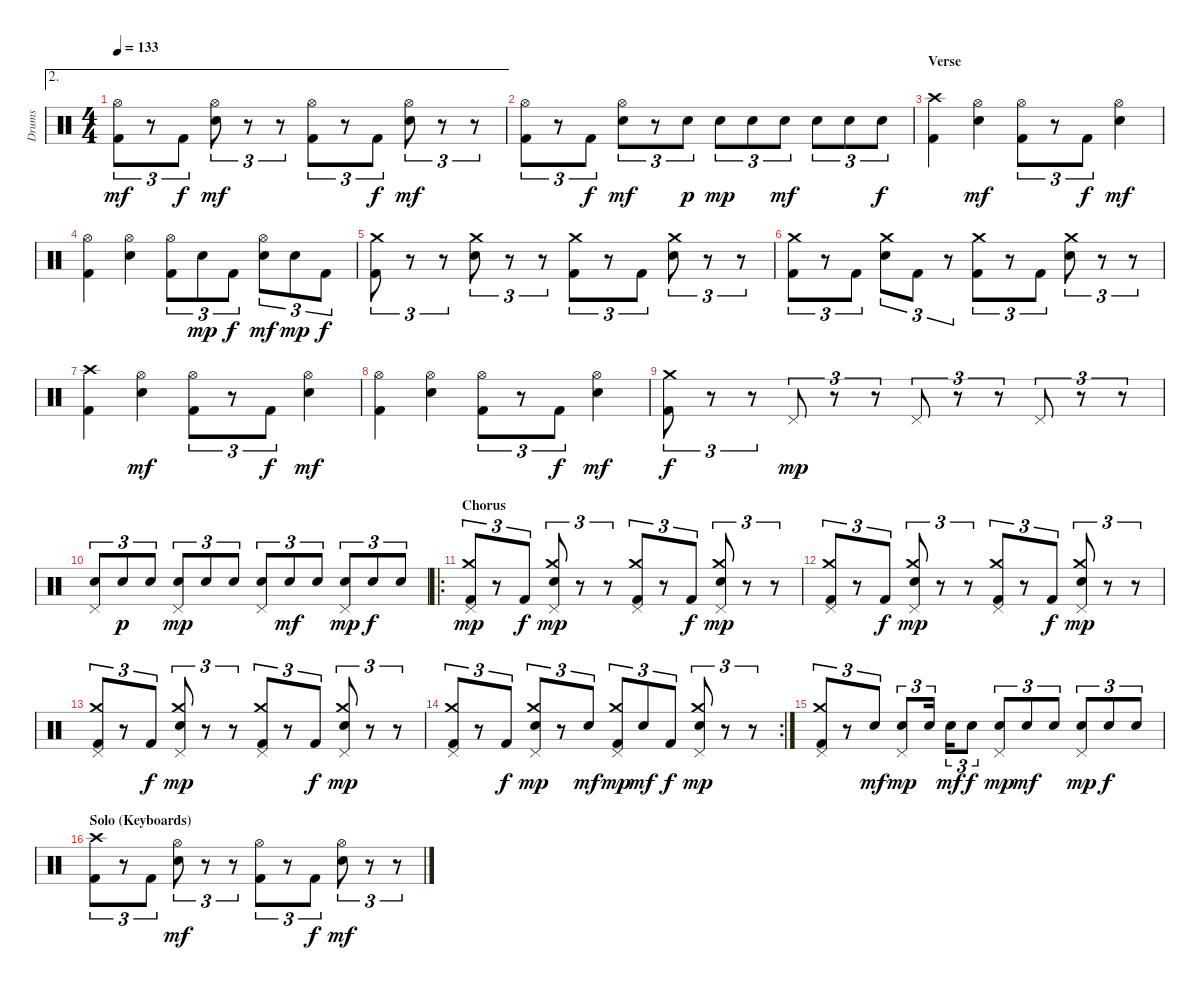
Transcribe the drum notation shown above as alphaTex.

\track ("Drums" "Drums") {instrument percussion}
\staff {score}
\articulation defaults
\ae 2
\ts (4 4)
\tempo 133
\clef neutral
\ks c
("Hi-Hat (open)" "Kick (hit) 2").8{tu (3 2) dy mf} r.8{tu (3 2)} "Kick (hit) 2".8{tu (3 2) dy f} ("Hi-Hat (open)" "Electric Snare (hit)").8{tu (3 2) dy mf} r.8{tu (3 2)} r.8{tu (3 2)} ("Hi-Hat (open)" "Kick (hit) 2").8{tu (3 2)} r.8{tu (3 2)} "Kick (hit) 2".8{tu (3 2) dy f} ("Hi-Hat (open)" "Electric Snare (hit)").8{tu (3 2) dy mf} r.8{tu (3 2)} r.8{tu (3 2)} |
("Hi-Hat (open)" "Kick (hit) 2").8{tu (3 2)} r.8{tu (3 2)} "Kick (hit) 2".8{tu (3 2) dy f} ("Hi-Hat (open)" "Electric Snare (hit)").8{tu (3 2) dy mf} r.8{tu (3 2)} "Electric Snare (hit)".8{tu (3 2) dy p} "Electric Snare (hit)".8{tu (3 2) dy mp} "Electric Snare (hit)".8{tu (3 2)} "Electric Snare (hit)".8{tu (3 2) dy mf} "Electric Snare (hit)".8{tu (3 2)} "Electric Snare (hit)".8{tu (3 2)} "Electric Snare (hit)".8{tu (3 2) dy f} |
\section ("" "Verse")
("Crash high (hit)" "Kick (hit) 2").4 ("Hi-Hat (open)" "Electric Snare (hit)").4{dy mf} ("Hi-Hat (open)" "Kick (hit) 2").8{tu (3 2)} r.8{tu (3 2)} "Kick (hit) 2".8{tu (3 2) dy f} ("Hi-Hat (open)" "Electric Snare (hit)").4{dy mf} |
("Hi-Hat (open)" "Kick (hit) 2").4 ("Hi-Hat (open)" "Electric Snare (hit)").4 ("Hi-Hat (open)" "Kick (hit) 2").8{tu (3 2)} "Electric Snare (hit)".8{tu (3 2) dy mp} "Kick (hit) 2".8{tu (3 2) dy f} ("Hi-Hat (open)" "Electric Snare (hit)").8{tu (3 2) dy mf} "Electric Snare (hit)".8{tu (3 2) dy mp} "Kick (hit) 2".8{tu (3 2) dy f} |
("Crash medium (hit)" "Kick (hit) 2").8{tu (3 2)} r.8{tu (3 2)} r.8{tu (3 2)} ("Crash medium (hit)" "Electric Snare (hit)").8{tu (3 2)} r.8{tu (3 2)} r.8{tu (3 2)} ("Crash medium (hit)" "Kick (hit) 2").8{tu (3 2)} r.8{tu (3 2)} "Kick (hit) 2".8{tu (3 2)} ("Crash medium (hit)" "Electric Snare (hit)").8{tu (3 2)} r.8{tu (3 2)} r.8{tu (3 2)} |
("Crash medium (hit)" "Kick (hit) 2").8{tu (3 2)} r.8{tu (3 2)} "Kick (hit) 2".8{tu (3 2)} ("Crash medium (hit)" "Electric Snare (hit)").8{tu (3 2)} "Kick (hit) 2".8{tu (3 2)} r.8{tu (3 2)} ("Crash medium (hit)" "Kick (hit) 2").8{tu (3 2)} r.8{tu (3 2)} "Kick (hit) 2".8{tu (3 2)} ("Crash medium (hit)" "Electric Snare (hit)").8{tu (3 2)} r.8{tu (3 2)} r.8{tu (3 2)} |
("Crash high (hit)" "Kick (hit) 2").4 ("Hi-Hat (open)" "Electric Snare (hit)").4{dy mf} ("Hi-Hat (open)" "Kick (hit) 2").8{tu (3 2)} r.8{tu (3 2)} "Kick (hit) 2".8{tu (3 2) dy f} ("Hi-Hat (open)" "Electric Snare (hit)").4{dy mf} |
("Hi-Hat (open)" "Kick (hit) 2").4 ("Hi-Hat (open)" "Electric Snare (hit)").4 ("Hi-Hat (open)" "Kick (hit) 2").8{tu (3 2)} r.8{tu (3 2)} "Kick (hit) 2".8{tu (3 2) dy f} ("Hi-Hat (open)" "Electric Snare (hit)").4{dy mf} |
("Crash medium (hit)" "Kick (hit) 2").8{tu (3 2) dy f} r.8{tu (3 2)} r.8{tu (3 2)} "Pedal Hi-Hat (hit)".8{tu (3 2) dy mp} r.8{tu (3 2)} r.8{tu (3 2)} "Pedal Hi-Hat (hit)".8{tu (3 2)} r.8{tu (3 2)} r.8{tu (3 2)} "Pedal Hi-Hat (hit)".8{tu (3 2)} r.8{tu (3 2)} r.8{tu (3 2)} |
("Electric Snare (hit)" "Pedal Hi-Hat (hit)").8{tu (3 2)} "Electric Snare (hit)".8{tu (3 2) dy p} "Electric Snare (hit)".8{tu (3 2)} ("Electric Snare (hit)" "Pedal Hi-Hat (hit)").8{tu (3 2) dy mp} "Electric Snare (hit)".8{tu (3 2)} "Electric Snare (hit)".8{tu (3 2)} ("Electric Snare (hit)" "Pedal Hi-Hat (hit)").8{tu (3 2)} "Electric Snare (hit)".8{tu (3 2) dy mf} "Electric Snare (hit)".8{tu (3 2)} ("Electric Snare (hit)" "Pedal Hi-Hat (hit)").8{tu (3 2) dy mp} "Electric Snare (hit)".8{tu (3 2) dy f} "Electric Snare (hit)".8{tu (3 2)} |
\ro
\section ("" "Chorus")
("Crash medium (hit)" "Pedal Hi-Hat (hit)" "Kick (hit) 2").8{tu (3 2) dy mp} r.8{tu (3 2)} "Kick (hit) 2".8{tu (3 2) dy f} ("Crash medium (hit)" "Electric Snare (hit)" "Pedal Hi-Hat (hit)").8{tu (3 2) dy mp} r.8{tu (3 2)} r.8{tu (3 2)} ("Crash medium (hit)" "Pedal Hi-Hat (hit)" "Kick (hit) 2").8{tu (3 2)} r.8{tu (3 2)} "Kick (hit) 2".8{tu (3 2) dy f} ("Crash medium (hit)" "Electric Snare (hit)" "Pedal Hi-Hat (hit)").8{tu (3 2) dy mp} r.8{tu (3 2)} r.8{tu (3 2)} |
("Crash medium (hit)" "Pedal Hi-Hat (hit)" "Kick (hit) 2").8{tu (3 2)} r.8{tu (3 2)} "Kick (hit) 2".8{tu (3 2) dy f} ("Crash medium (hit)" "Electric Snare (hit)" "Pedal Hi-Hat (hit)").8{tu (3 2) dy mp} r.8{tu (3 2)} r.8{tu (3 2)} ("Crash medium (hit)" "Pedal Hi-Hat (hit)" "Kick (hit) 2").8{tu (3 2)} r.8{tu (3 2)} "Kick (hit) 2".8{tu (3 2) dy f} ("Crash medium (hit)" "Electric Snare (hit)" "Pedal Hi-Hat (hit)").8{tu (3 2) dy mp} r.8{tu (3 2)} r.8{tu (3 2)} |
("Crash medium (hit)" "Pedal Hi-Hat (hit)" "Kick (hit) 2").8{tu (3 2)} r.8{tu (3 2)} "Kick (hit) 2".8{tu (3 2) dy f} ("Crash medium (hit)" "Electric Snare (hit)" "Pedal Hi-Hat (hit)").8{tu (3 2) dy mp} r.8{tu (3 2)} r.8{tu (3 2)} ("Crash medium (hit)" "Pedal Hi-Hat (hit)" "Kick (hit) 2").8{tu (3 2)} r.8{tu (3 2)} "Kick (hit) 2".8{tu (3 2) dy f} ("Crash medium (hit)" "Electric Snare (hit)" "Pedal Hi-Hat (hit)").8{tu (3 2) dy mp} r.8{tu (3 2)} r.8{tu (3 2)} |
\rc 2
("Crash medium (hit)" "Pedal Hi-Hat (hit)" "Kick (hit) 2").8{tu (3 2)} r.8{tu (3 2)} "Kick (hit) 2".8{tu (3 2) dy f} ("Crash medium (hit)" "Electric Snare (hit)" "Pedal Hi-Hat (hit)").8{tu (3 2) dy mp} r.8{tu (3 2)} "Electric Snare (hit)".8{tu (3 2) dy mf} ("Crash medium (hit)" "Pedal Hi-Hat (hit)" "Kick (hit) 2").8{tu (3 2) dy mp} "Electric Snare (hit)".8{tu (3 2) dy mf} "Kick (hit) 2".8{tu (3 2) dy f} ("Crash medium (hit)" "Electric Snare (hit)" "Pedal Hi-Hat (hit)").8{tu (3 2) dy mp} r.8{tu (3 2)} r.8{tu (3 2)} |
("Crash medium (hit)" "Pedal Hi-Hat (hit)" "Kick (hit) 2").8{tu (3 2)} r.8{tu (3 2)} "Electric Snare (hit)".8{tu (3 2) dy mf} ("Electric Snare (hit)" "Pedal Hi-Hat (hit)").8{tu (3 2) dy mp} "Electric Snare (hit)".16{tu (3 2)} "Electric Snare (hit)".16{tu (3 2) dy mf} "Electric Snare (hit)".8{tu (3 2) dy f} ("Electric Snare (hit)" "Pedal Hi-Hat (hit)").8{tu (3 2) dy mp} "Electric Snare (hit)".8{tu (3 2) dy mf} "Electric Snare (hit)".8{tu (3 2)} ("Electric Snare (hit)" "Pedal Hi-Hat (hit)").8{tu (3 2) dy mp} "Electric Snare (hit)".8{tu (3 2) dy f} "Electric Snare (hit)".8{tu (3 2)} |
\section ("" "Solo (Keyboards)")
("Crash high (hit)" "Kick (hit) 2").8{tu (3 2)} r.8{tu (3 2)} "Kick (hit) 2".8{tu (3 2)} ("Hi-Hat (open)" "Electric Snare (hit)").8{tu (3 2) dy mf} r.8{tu (3 2)} r.8{tu (3 2)} ("Hi-Hat (open)" "Kick (hit) 2").8{tu (3 2)} r.8{tu (3 2)} "Kick (hit) 2".8{tu (3 2) dy f} ("Hi-Hat (open)" "Electric Snare (hit)").8{tu (3 2) dy mf} r.8{tu (3 2)} r.8{tu (3 2)}
